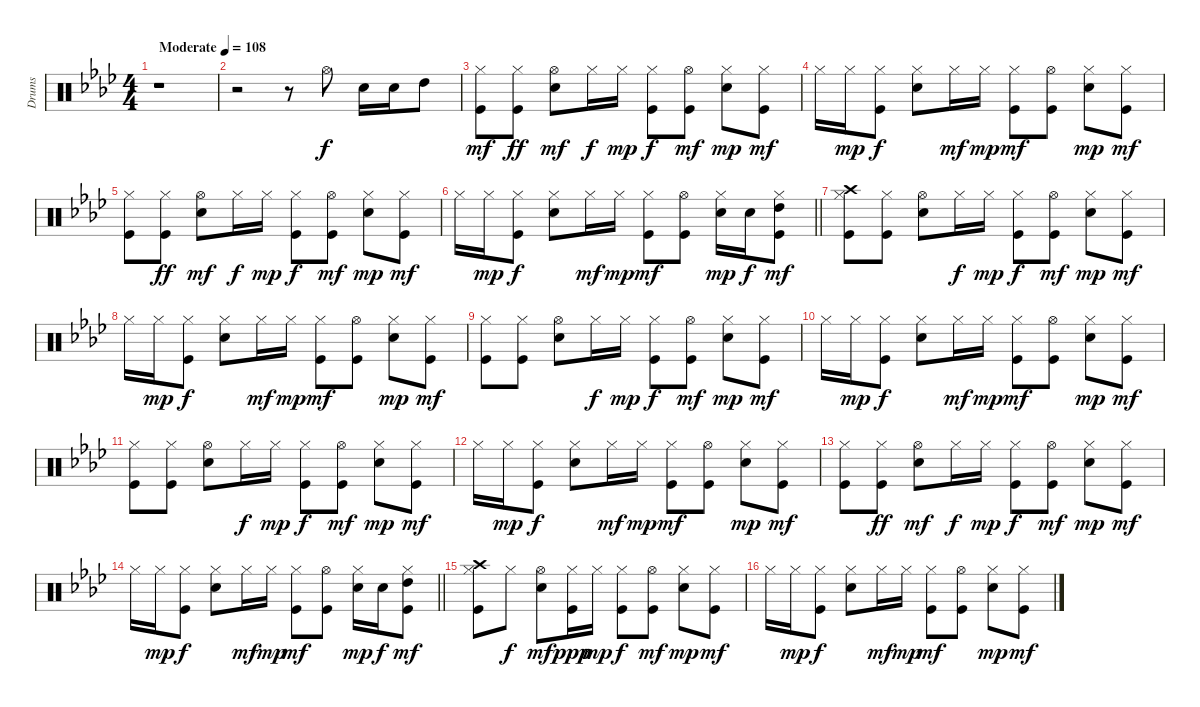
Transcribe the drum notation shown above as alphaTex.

\track ("Drums" "Drums") {instrument percussion}
\staff {score}
\articulation defaults
\ts (4 4)
\tempo (108 "Moderate")
\clef neutral
\ks ab
r.1{dy f} |
r.2 r.8 "Hi-Hat (open)".8 "Electric Snare (hit)".16 "Electric Snare (hit)".16 "High Tom (hit)".8 |
("Kick (hit)" "Hi-Hat (closed)").8{dy mf} ("Kick (hit)" "Hi-Hat (closed)").8{dy ff} ("Electric Snare (hit)" "Hi-Hat (open)").8{dy mf} "Hi-Hat (closed)".16{dy f} "Hi-Hat (closed)".16{dy mp} ("Kick (hit)" "Hi-Hat (closed)").8{dy f} ("Kick (hit)" "Hi-Hat (open)").8{dy mf} ("Electric Snare (hit)" "Hi-Hat (closed)").8{dy mp} ("Kick (hit)" "Hi-Hat (closed)").8{dy mf} |
"Hi-Hat (closed)".16 "Hi-Hat (closed)".16{dy mp} ("Kick (hit)" "Hi-Hat (closed)").8{dy f} ("Electric Snare (hit)" "Hi-Hat (closed)").8 "Hi-Hat (closed)".16{dy mf} "Hi-Hat (closed)".16{dy mp} ("Kick (hit)" "Hi-Hat (closed)").8{dy mf} ("Kick (hit)" "Hi-Hat (open)").8 ("Electric Snare (hit)" "Hi-Hat (closed)").8{dy mp} ("Kick (hit)" "Hi-Hat (closed)").8{dy mf} |
("Kick (hit)" "Hi-Hat (closed)").8 ("Kick (hit)" "Hi-Hat (closed)").8{dy ff} ("Electric Snare (hit)" "Hi-Hat (open)").8{dy mf} "Hi-Hat (closed)".16{dy f} "Hi-Hat (closed)".16{dy mp} ("Kick (hit)" "Hi-Hat (closed)").8{dy f} ("Kick (hit)" "Hi-Hat (open)").8{dy mf} ("Electric Snare (hit)" "Hi-Hat (closed)").8{dy mp} ("Kick (hit)" "Hi-Hat (closed)").8{dy mf} |
\barLineRight lightlight "Hi-Hat (closed)".16 "Hi-Hat (closed)".16{dy mp}
("Kick (hit)" "Hi-Hat (closed)").8{dy f} ("Electric Snare (hit)" "Hi-Hat (closed)").8 "Hi-Hat (closed)".16{dy mf} "Hi-Hat (closed)".16{dy mp} ("Kick (hit)" "Hi-Hat (closed)").8{dy mf} ("Kick (hit)" "Hi-Hat (open)").8 ("Electric Snare (hit)" "Hi-Hat (closed)").16{dy mp} "Electric Snare (hit)".16{dy f} ("Kick (hit)" "Hi-Hat (closed)" "High Tom (hit)").8{dy mf} |
("Kick (hit)" "Hi-Hat (closed)" "Crash high (hit)").8 ("Kick (hit)" "Hi-Hat (closed)").8 ("Electric Snare (hit)" "Hi-Hat (open)").8 "Hi-Hat (closed)".16{dy f} "Hi-Hat (closed)".16{dy mp} ("Kick (hit)" "Hi-Hat (closed)").8{dy f} ("Kick (hit)" "Hi-Hat (open)").8{dy mf} ("Electric Snare (hit)" "Hi-Hat (closed)").8{dy mp} ("Kick (hit)" "Hi-Hat (closed)").8{dy mf} |
"Hi-Hat (closed)".16 "Hi-Hat (closed)".16{dy mp} ("Kick (hit)" "Hi-Hat (closed)").8{dy f} ("Electric Snare (hit)" "Hi-Hat (closed)").8 "Hi-Hat (closed)".16{dy mf} "Hi-Hat (closed)".16{dy mp} ("Kick (hit)" "Hi-Hat (closed)").8{dy mf} ("Kick (hit)" "Hi-Hat (open)").8 ("Electric Snare (hit)" "Hi-Hat (closed)").8{dy mp} ("Kick (hit)" "Hi-Hat (closed)").8{dy mf} |
("Kick (hit)" "Hi-Hat (closed)").8 ("Kick (hit)" "Hi-Hat (closed)").8 ("Electric Snare (hit)" "Hi-Hat (open)").8 "Hi-Hat (closed)".16{dy f} "Hi-Hat (closed)".16{dy mp} ("Kick (hit)" "Hi-Hat (closed)").8{dy f} ("Kick (hit)" "Hi-Hat (open)").8{dy mf} ("Electric Snare (hit)" "Hi-Hat (closed)").8{dy mp} ("Kick (hit)" "Hi-Hat (closed)").8{dy mf} |
"Hi-Hat (closed)".16 "Hi-Hat (closed)".16{dy mp} ("Kick (hit)" "Hi-Hat (closed)").8{dy f} ("Electric Snare (hit)" "Hi-Hat (closed)").8 "Hi-Hat (closed)".16{dy mf} "Hi-Hat (closed)".16{dy mp} ("Kick (hit)" "Hi-Hat (closed)").8{dy mf} ("Kick (hit)" "Hi-Hat (open)").8 ("Electric Snare (hit)" "Hi-Hat (closed)").8{dy mp} ("Kick (hit)" "Hi-Hat (closed)").8{dy mf} |
("Kick (hit)" "Hi-Hat (closed)").8 ("Kick (hit)" "Hi-Hat (closed)").8 ("Electric Snare (hit)" "Hi-Hat (open)").8 "Hi-Hat (closed)".16{dy f} "Hi-Hat (closed)".16{dy mp} ("Kick (hit)" "Hi-Hat (closed)").8{dy f} ("Kick (hit)" "Hi-Hat (open)").8{dy mf} ("Electric Snare (hit)" "Hi-Hat (closed)").8{dy mp} ("Kick (hit)" "Hi-Hat (closed)").8{dy mf} |
"Hi-Hat (closed)".16 "Hi-Hat (closed)".16{dy mp} ("Kick (hit)" "Hi-Hat (closed)").8{dy f} ("Electric Snare (hit)" "Hi-Hat (closed)").8 "Hi-Hat (closed)".16{dy mf} "Hi-Hat (closed)".16{dy mp} ("Kick (hit)" "Hi-Hat (closed)").8{dy mf} ("Kick (hit)" "Hi-Hat (open)").8 ("Electric Snare (hit)" "Hi-Hat (closed)").8{dy mp} ("Kick (hit)" "Hi-Hat (closed)").8{dy mf} |
("Kick (hit)" "Hi-Hat (closed)").8 ("Kick (hit)" "Hi-Hat (closed)").8{dy ff} ("Electric Snare (hit)" "Hi-Hat (open)").8{dy mf} "Hi-Hat (closed)".16{dy f} "Hi-Hat (closed)".16{dy mp} ("Kick (hit)" "Hi-Hat (closed)").8{dy f} ("Kick (hit)" "Hi-Hat (open)").8{dy mf} ("Electric Snare (hit)" "Hi-Hat (closed)").8{dy mp} ("Kick (hit)" "Hi-Hat (closed)").8{dy mf} |
\barLineRight lightlight "Hi-Hat (closed)".16 "Hi-Hat (closed)".16{dy mp}
("Kick (hit)" "Hi-Hat (closed)").8{dy f} ("Electric Snare (hit)" "Hi-Hat (closed)").8 "Hi-Hat (closed)".16{dy mf} "Hi-Hat (closed)".16{dy mp} ("Kick (hit)" "Hi-Hat (closed)").8{dy mf} ("Kick (hit)" "Hi-Hat (open)").8 ("Electric Snare (hit)" "Hi-Hat (closed)").16{dy mp} "Electric Snare (hit)".16{dy f} ("Kick (hit)" "Hi-Hat (closed)" "High Tom (hit)").8{dy mf} |
("Kick (hit)" "Hi-Hat (closed)" "Crash high (hit)").8 "Hi-Hat (closed)".8{dy f} ("Electric Snare (hit)" "Hi-Hat (open)").8{dy mf} ("Hi-Hat (closed)" "Kick (hit)").16{dy ppp} "Hi-Hat (closed)".16{dy mp} ("Kick (hit)" "Hi-Hat (closed)").8{dy f} ("Kick (hit)" "Hi-Hat (open)").8{dy mf} ("Electric Snare (hit)" "Hi-Hat (closed)").8{dy mp} ("Kick (hit)" "Hi-Hat (closed)").8{dy mf} |
"Hi-Hat (closed)".16 "Hi-Hat (closed)".16{dy mp} ("Kick (hit)" "Hi-Hat (closed)").8{dy f} ("Electric Snare (hit)" "Hi-Hat (closed)").8 "Hi-Hat (closed)".16{dy mf} "Hi-Hat (closed)".16{dy mp} ("Kick (hit)" "Hi-Hat (closed)").8{dy mf} ("Kick (hit)" "Hi-Hat (open)").8 ("Electric Snare (hit)" "Hi-Hat (closed)").8{dy mp} ("Kick (hit)" "Hi-Hat (closed)").8{dy mf}
